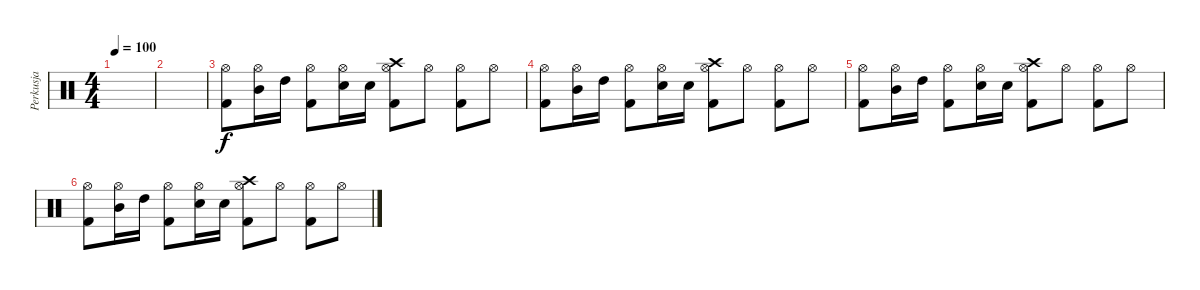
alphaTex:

\track ("Perkusja" "Perkusja") {instrument percussion}
\staff {score}
\articulation defaults
\ts (4 4)
\tempo 100
\clef neutral
\ks c
|
|
("Hi-Hat (open)" "Kick (hit) 2").8 ("Hi-Hat (open)" "Mid Tom (hit)").16 "High Tom (hit)".16 ("Hi-Hat (open)" "Kick (hit) 2").8 ("Hi-Hat (open)" "Electric Snare (hit)").16 "Electric Snare (hit)".16 ("Hi-Hat (open)" "Crash high (hit)" "Kick (hit) 2").8 "Hi-Hat (open)".8 ("Hi-Hat (open)" "Kick (hit) 2").8 "Hi-Hat (open)".8 |
("Hi-Hat (open)" "Kick (hit) 2").8 ("Hi-Hat (open)" "Mid Tom (hit)").16 "High Tom (hit)".16 ("Hi-Hat (open)" "Kick (hit) 2").8 ("Hi-Hat (open)" "Electric Snare (hit)").16 "Electric Snare (hit)".16 ("Hi-Hat (open)" "Crash high (hit)" "Kick (hit) 2").8 "Hi-Hat (open)".8 ("Hi-Hat (open)" "Kick (hit) 2").8 "Hi-Hat (open)".8 |
("Hi-Hat (open)" "Kick (hit) 2").8 ("Hi-Hat (open)" "Mid Tom (hit)").16 "High Tom (hit)".16 ("Hi-Hat (open)" "Kick (hit) 2").8 ("Hi-Hat (open)" "Electric Snare (hit)").16 "Electric Snare (hit)".16 ("Hi-Hat (open)" "Crash high (hit)" "Kick (hit) 2").8 "Hi-Hat (open)".8 ("Hi-Hat (open)" "Kick (hit) 2").8 "Hi-Hat (open)".8 |
("Hi-Hat (open)" "Kick (hit) 2").8 ("Hi-Hat (open)" "Mid Tom (hit)").16 "High Tom (hit)".16 ("Hi-Hat (open)" "Kick (hit) 2").8 ("Hi-Hat (open)" "Electric Snare (hit)").16 "Electric Snare (hit)".16 ("Hi-Hat (open)" "Crash high (hit)" "Kick (hit) 2").8 "Hi-Hat (open)".8 ("Hi-Hat (open)" "Kick (hit) 2").8 "Hi-Hat (open)".8
